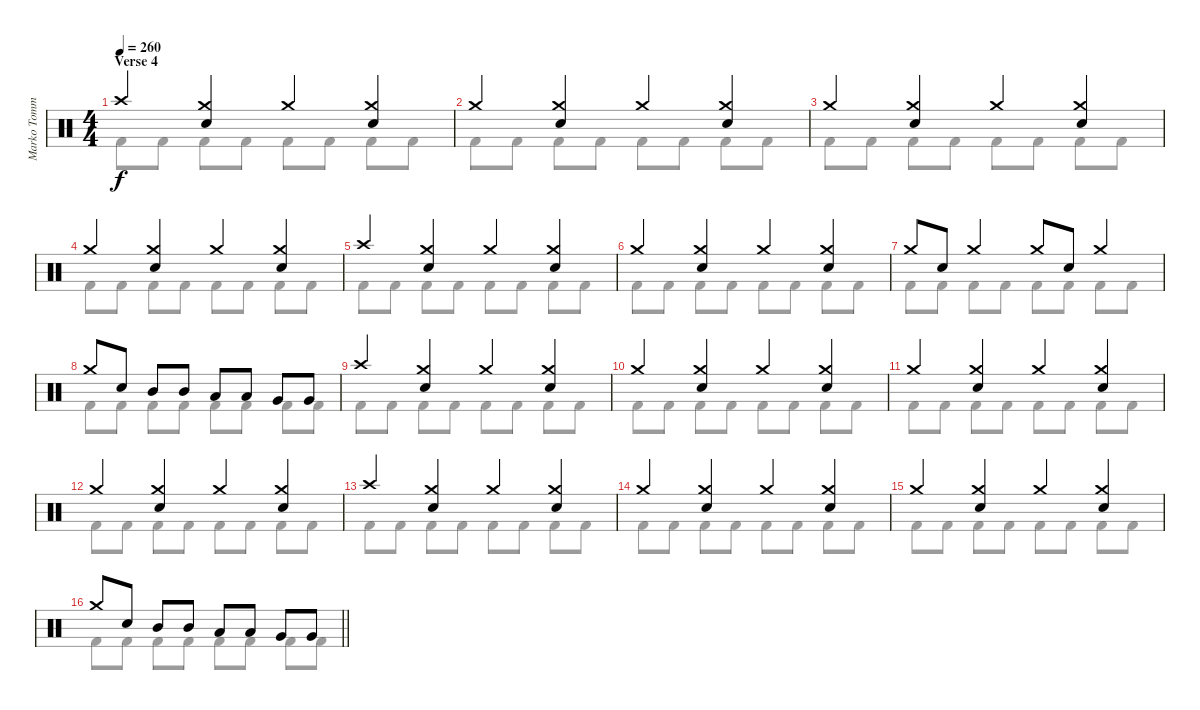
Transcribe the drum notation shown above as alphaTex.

\track ("Marko Tommila (drums)" "Marko Tomm") {instrument percussion}
\staff {score}
\articulation defaults
\voice
\ts (4 4)
\section ("" "Verse 4")
\tempo 260
\clef neutral
\ks aminor "Crash high (hit)".4{dy f}
("Crash medium (hit)" "Electric Snare (hit)").4 "Crash medium (hit)".4 ("Crash medium (hit)" "Electric Snare (hit)").4 |
"Crash medium (hit)".4 ("Crash medium (hit)" "Electric Snare (hit)").4 "Crash medium (hit)".4 ("Crash medium (hit)" "Electric Snare (hit)").4 |
"Crash medium (hit)".4 ("Crash medium (hit)" "Electric Snare (hit)").4 "Crash medium (hit)".4 ("Crash medium (hit)" "Electric Snare (hit)").4 |
"Crash medium (hit)".4 ("Crash medium (hit)" "Electric Snare (hit)").4 "Crash medium (hit)".4 ("Crash medium (hit)" "Electric Snare (hit)").4 |
"Crash high (hit)".4 ("Crash medium (hit)" "Electric Snare (hit)").4 "Crash medium (hit)".4 ("Crash medium (hit)" "Electric Snare (hit)").4 |
"Crash medium (hit)".4 ("Crash medium (hit)" "Electric Snare (hit)").4 "Crash medium (hit)".4 ("Crash medium (hit)" "Electric Snare (hit)").4 |
"Crash medium (hit)".8 "Electric Snare (hit)".8 "Crash medium (hit)".4 "Crash medium (hit)".8 "Electric Snare (hit)".8 "Crash medium (hit)".4 |
"Crash medium (hit)".8 "Electric Snare (hit)".8 "Mid Tom (hit)".8 "Mid Tom (hit)".8 "Low Tom (hit)".8 "Low Tom (hit)".8 "Very Low Tom (hit)".8 "Very Low Tom (hit)".8 |
"Crash high (hit)".4 ("Crash medium (hit)" "Electric Snare (hit)").4 "Crash medium (hit)".4 ("Crash medium (hit)" "Electric Snare (hit)").4 |
"Crash medium (hit)".4 ("Crash medium (hit)" "Electric Snare (hit)").4 "Crash medium (hit)".4 ("Crash medium (hit)" "Electric Snare (hit)").4 |
"Crash medium (hit)".4 ("Crash medium (hit)" "Electric Snare (hit)").4 "Crash medium (hit)".4 ("Crash medium (hit)" "Electric Snare (hit)").4 |
"Crash medium (hit)".4 ("Crash medium (hit)" "Electric Snare (hit)").4 "Crash medium (hit)".4 ("Crash medium (hit)" "Electric Snare (hit)").4 |
"Crash high (hit)".4 ("Crash medium (hit)" "Electric Snare (hit)").4 "Crash medium (hit)".4 ("Crash medium (hit)" "Electric Snare (hit)").4 |
"Crash medium (hit)".4 ("Crash medium (hit)" "Electric Snare (hit)").4 "Crash medium (hit)".4 ("Crash medium (hit)" "Electric Snare (hit)").4 |
"Crash medium (hit)".4 ("Crash medium (hit)" "Electric Snare (hit)").4 "Crash medium (hit)".4 ("Crash medium (hit)" "Electric Snare (hit)").4 |
\barLineRight lightlight "Crash medium (hit)".8 "Electric Snare (hit)".8 "Mid Tom (hit)".8 "Mid Tom (hit)".8 "Low Tom (hit)".8 "Low Tom (hit)".8 "Very Low Tom (hit)".8 "Very Low Tom (hit)".8
\voice
\clef neutral
\ottava regular
\simile none
\ks aminor "Kick (hit) 2".8{dy f} "Kick (hit) 2".8 "Kick (hit) 2".8 "Kick (hit) 2".8 "Kick (hit) 2".8 "Kick (hit) 2".8 "Kick (hit) 2".8 "Kick (hit) 2".8
|
"Kick (hit) 2".8 "Kick (hit) 2".8 "Kick (hit) 2".8 "Kick (hit) 2".8 "Kick (hit) 2".8 "Kick (hit) 2".8 "Kick (hit) 2".8 "Kick (hit) 2".8 |
"Kick (hit) 2".8 "Kick (hit) 2".8 "Kick (hit) 2".8 "Kick (hit) 2".8 "Kick (hit) 2".8 "Kick (hit) 2".8 "Kick (hit) 2".8 "Kick (hit) 2".8 |
"Kick (hit) 2".8 "Kick (hit) 2".8 "Kick (hit) 2".8 "Kick (hit) 2".8 "Kick (hit) 2".8 "Kick (hit) 2".8 "Kick (hit) 2".8 "Kick (hit) 2".8 |
"Kick (hit) 2".8 "Kick (hit) 2".8 "Kick (hit) 2".8 "Kick (hit) 2".8 "Kick (hit) 2".8 "Kick (hit) 2".8 "Kick (hit) 2".8 "Kick (hit) 2".8 |
"Kick (hit) 2".8 "Kick (hit) 2".8 "Kick (hit) 2".8 "Kick (hit) 2".8 "Kick (hit) 2".8 "Kick (hit) 2".8 "Kick (hit) 2".8 "Kick (hit) 2".8 |
"Kick (hit) 2".8 "Kick (hit) 2".8 "Kick (hit) 2".8 "Kick (hit) 2".8 "Kick (hit) 2".8 "Kick (hit) 2".8 "Kick (hit) 2".8 "Kick (hit) 2".8 |
"Kick (hit) 2".8 "Kick (hit) 2".8 "Kick (hit) 2".8 "Kick (hit) 2".8 "Kick (hit) 2".8 "Kick (hit) 2".8 "Kick (hit) 2".8 "Kick (hit) 2".8 |
"Kick (hit) 2".8 "Kick (hit) 2".8 "Kick (hit) 2".8 "Kick (hit) 2".8 "Kick (hit) 2".8 "Kick (hit) 2".8 "Kick (hit) 2".8 "Kick (hit) 2".8 |
"Kick (hit) 2".8 "Kick (hit) 2".8 "Kick (hit) 2".8 "Kick (hit) 2".8 "Kick (hit) 2".8 "Kick (hit) 2".8 "Kick (hit) 2".8 "Kick (hit) 2".8 |
"Kick (hit) 2".8 "Kick (hit) 2".8 "Kick (hit) 2".8 "Kick (hit) 2".8 "Kick (hit) 2".8 "Kick (hit) 2".8 "Kick (hit) 2".8 "Kick (hit) 2".8 |
"Kick (hit) 2".8 "Kick (hit) 2".8 "Kick (hit) 2".8 "Kick (hit) 2".8 "Kick (hit) 2".8 "Kick (hit) 2".8 "Kick (hit) 2".8 "Kick (hit) 2".8 |
"Kick (hit) 2".8 "Kick (hit) 2".8 "Kick (hit) 2".8 "Kick (hit) 2".8 "Kick (hit) 2".8 "Kick (hit) 2".8 "Kick (hit) 2".8 "Kick (hit) 2".8 |
"Kick (hit) 2".8 "Kick (hit) 2".8 "Kick (hit) 2".8 "Kick (hit) 2".8 "Kick (hit) 2".8 "Kick (hit) 2".8 "Kick (hit) 2".8 "Kick (hit) 2".8 |
"Kick (hit) 2".8 "Kick (hit) 2".8 "Kick (hit) 2".8 "Kick (hit) 2".8 "Kick (hit) 2".8 "Kick (hit) 2".8 "Kick (hit) 2".8 "Kick (hit) 2".8 |
\barLineRight lightlight "Kick (hit) 2".8 "Kick (hit) 2".8 "Kick (hit) 2".8 "Kick (hit) 2".8 "Kick (hit) 2".8 "Kick (hit) 2".8 "Kick (hit) 2".8 "Kick (hit) 2".8
